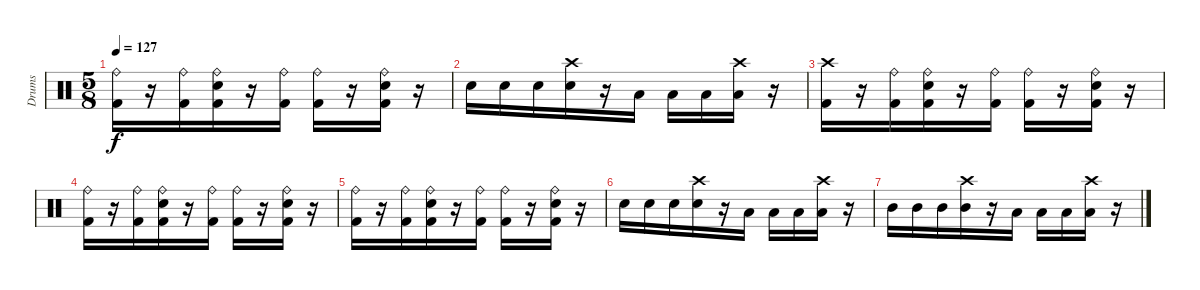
\track ("Drums" "Drums") {instrument percussion}
\staff {score}
\articulation defaults
\ts (5 8)
\tempo 127
\clef neutral
\ks c
("Ride (bell)" "Kick (hit) 2").16{dy f} r.16 ("Ride (bell)" "Kick (hit) 2").16 ("Ride (bell)" "Electric Snare (hit)" "Kick (hit) 2").16 r.16 ("Ride (bell)" "Kick (hit) 2").16 ("Ride (bell)" "Kick (hit) 2").16 r.16 ("Ride (bell)" "Electric Snare (hit)" "Kick (hit) 2").16 r.16 |
"Electric Snare (hit)".16 "Electric Snare (hit)".16 "Electric Snare (hit)".16 ("Crash high (hit)" "Electric Snare (hit)").16 r.16 "Low Tom (hit)".16 "Low Tom (hit)".16 "Low Tom (hit)".16 ("Crash high (hit)" "Low Tom (hit)").16 r.16 |
("Crash high (hit)" "Kick (hit) 2").16 r.16 ("Ride (bell)" "Kick (hit) 2").16 ("Ride (bell)" "Electric Snare (hit)" "Kick (hit) 2").16 r.16 ("Ride (bell)" "Kick (hit) 2").16 ("Ride (bell)" "Kick (hit) 2").16 r.16 ("Ride (bell)" "Electric Snare (hit)" "Kick (hit) 2").16 r.16 |
("Ride (bell)" "Kick (hit) 2").16 r.16 ("Ride (bell)" "Kick (hit) 2").16 ("Ride (bell)" "Electric Snare (hit)" "Kick (hit) 2").16 r.16 ("Ride (bell)" "Kick (hit) 2").16 ("Ride (bell)" "Kick (hit) 2").16 r.16 ("Ride (bell)" "Electric Snare (hit)" "Kick (hit) 2").16 r.16 |
("Ride (bell)" "Kick (hit) 2").16 r.16 ("Ride (bell)" "Kick (hit) 2").16 ("Ride (bell)" "Electric Snare (hit)" "Kick (hit) 2").16 r.16 ("Ride (bell)" "Kick (hit) 2").16 ("Ride (bell)" "Kick (hit) 2").16 r.16 ("Ride (bell)" "Electric Snare (hit)" "Kick (hit) 2").16 r.16 |
"Electric Snare (hit)".16 "Electric Snare (hit)".16 "Electric Snare (hit)".16 ("Crash high (hit)" "Electric Snare (hit)").16 r.16 "Low Tom (hit)".16 "Low Tom (hit)".16 "Low Tom (hit)".16 ("Crash high (hit)" "Low Tom (hit)").16 r.16 |
"Mid Tom (hit)".16 "Mid Tom (hit)".16 "Mid Tom (hit)".16 ("Crash high (hit)" "Mid Tom (hit)").16 r.16 "Low Tom (hit)".16 "Low Tom (hit)".16 "Low Tom (hit)".16 ("Crash high (hit)" "Low Tom (hit)").16 r.16
